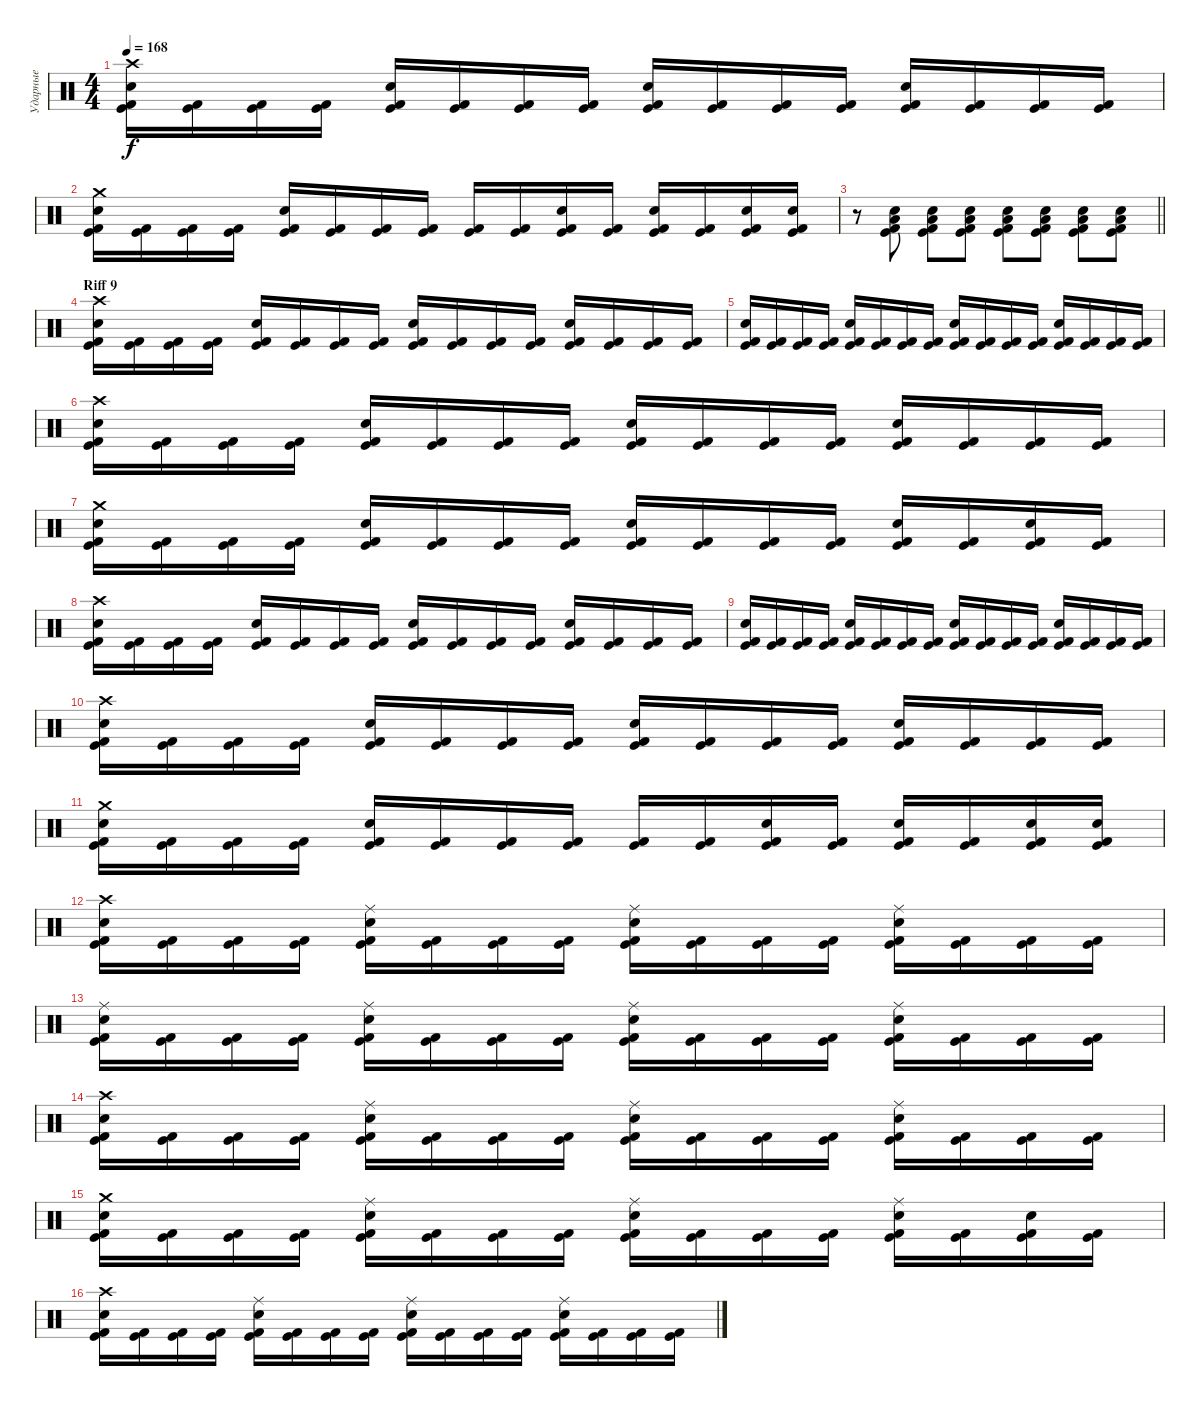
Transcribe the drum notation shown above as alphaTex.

\track ("Ударные" "Ударные") {instrument percussion}
\staff {score}
\articulation defaults
\ts (4 4)
\tempo 168
\clef neutral
\ks c
("Crash high (hit)" "Electric Snare (hit)" "Kick (hit)" "Kick (hit) 2").16{dy f} ("Kick (hit)" "Kick (hit) 2").16 ("Kick (hit)" "Kick (hit) 2").16 ("Kick (hit)" "Kick (hit) 2").16 ("Electric Snare (hit)" "Kick (hit)" "Kick (hit) 2").16 ("Kick (hit)" "Kick (hit) 2").16 ("Kick (hit)" "Kick (hit) 2").16 ("Kick (hit)" "Kick (hit) 2").16 ("Electric Snare (hit)" "Kick (hit)" "Kick (hit) 2").16 ("Kick (hit)" "Kick (hit) 2").16 ("Kick (hit)" "Kick (hit) 2").16 ("Kick (hit)" "Kick (hit) 2").16 ("Electric Snare (hit)" "Kick (hit)" "Kick (hit) 2").16 ("Kick (hit)" "Kick (hit) 2").16 ("Kick (hit)" "Kick (hit) 2").16 ("Kick (hit)" "Kick (hit) 2").16 |
("Crash medium (hit)" "Electric Snare (hit)" "Kick (hit)" "Kick (hit) 2").16 ("Kick (hit)" "Kick (hit) 2").16 ("Kick (hit)" "Kick (hit) 2").16 ("Kick (hit)" "Kick (hit) 2").16 ("Electric Snare (hit)" "Kick (hit)" "Kick (hit) 2").16 ("Kick (hit)" "Kick (hit) 2").16 ("Kick (hit)" "Kick (hit) 2").16 ("Kick (hit)" "Kick (hit) 2").16 ("Kick (hit)" "Kick (hit) 2").16 ("Kick (hit)" "Kick (hit) 2").16 ("Electric Snare (hit)" "Kick (hit)" "Kick (hit) 2").16 ("Kick (hit)" "Kick (hit) 2").16 ("Electric Snare (hit)" "Kick (hit)" "Kick (hit) 2").16 ("Kick (hit)" "Kick (hit) 2").16 ("Electric Snare (hit)" "Kick (hit)" "Kick (hit) 2").16 ("Electric Snare (hit)" "Kick (hit)" "Kick (hit) 2").16 |
\barLineRight lightlight
r.8 ("Low Tom (hit)" "Electric Snare (hit)" "Kick (hit)" "Kick (hit) 2").8 ("Low Tom (hit)" "Electric Snare (hit)" "Kick (hit)" "Kick (hit) 2").8 ("Low Tom (hit)" "Electric Snare (hit)" "Kick (hit)" "Kick (hit) 2").8 ("Low Tom (hit)" "Electric Snare (hit)" "Kick (hit)" "Kick (hit) 2").8 ("Low Tom (hit)" "Electric Snare (hit)" "Kick (hit)" "Kick (hit) 2").8 ("Low Tom (hit)" "Electric Snare (hit)" "Kick (hit)" "Kick (hit) 2").8 ("Low Tom (hit)" "Electric Snare (hit)" "Kick (hit)" "Kick (hit) 2").8 |
\section ("" "Riff 9")
("Crash high (hit)" "Electric Snare (hit)" "Kick (hit)" "Kick (hit) 2").16 ("Kick (hit)" "Kick (hit) 2").16 ("Kick (hit)" "Kick (hit) 2").16 ("Kick (hit)" "Kick (hit) 2").16 ("Electric Snare (hit)" "Kick (hit)" "Kick (hit) 2").16 ("Kick (hit)" "Kick (hit) 2").16 ("Kick (hit)" "Kick (hit) 2").16 ("Kick (hit)" "Kick (hit) 2").16 ("Electric Snare (hit)" "Kick (hit)" "Kick (hit) 2").16 ("Kick (hit)" "Kick (hit) 2").16 ("Kick (hit)" "Kick (hit) 2").16 ("Kick (hit)" "Kick (hit) 2").16 ("Electric Snare (hit)" "Kick (hit)" "Kick (hit) 2").16 ("Kick (hit)" "Kick (hit) 2").16 ("Kick (hit)" "Kick (hit) 2").16 ("Kick (hit)" "Kick (hit) 2").16 |
("Electric Snare (hit)" "Kick (hit)" "Kick (hit) 2").16 ("Kick (hit)" "Kick (hit) 2").16 ("Kick (hit)" "Kick (hit) 2").16 ("Kick (hit)" "Kick (hit) 2").16 ("Electric Snare (hit)" "Kick (hit)" "Kick (hit) 2").16 ("Kick (hit)" "Kick (hit) 2").16 ("Kick (hit)" "Kick (hit) 2").16 ("Kick (hit)" "Kick (hit) 2").16 ("Electric Snare (hit)" "Kick (hit)" "Kick (hit) 2").16 ("Kick (hit)" "Kick (hit) 2").16 ("Kick (hit)" "Kick (hit) 2").16 ("Kick (hit)" "Kick (hit) 2").16 ("Electric Snare (hit)" "Kick (hit)" "Kick (hit) 2").16 ("Kick (hit)" "Kick (hit) 2").16 ("Kick (hit)" "Kick (hit) 2").16 ("Kick (hit)" "Kick (hit) 2").16 |
("Crash high (hit)" "Electric Snare (hit)" "Kick (hit)" "Kick (hit) 2").16 ("Kick (hit)" "Kick (hit) 2").16 ("Kick (hit)" "Kick (hit) 2").16 ("Kick (hit)" "Kick (hit) 2").16 ("Electric Snare (hit)" "Kick (hit)" "Kick (hit) 2").16 ("Kick (hit)" "Kick (hit) 2").16 ("Kick (hit)" "Kick (hit) 2").16 ("Kick (hit)" "Kick (hit) 2").16 ("Electric Snare (hit)" "Kick (hit)" "Kick (hit) 2").16 ("Kick (hit)" "Kick (hit) 2").16 ("Kick (hit)" "Kick (hit) 2").16 ("Kick (hit)" "Kick (hit) 2").16 ("Electric Snare (hit)" "Kick (hit)" "Kick (hit) 2").16 ("Kick (hit)" "Kick (hit) 2").16 ("Kick (hit)" "Kick (hit) 2").16 ("Kick (hit)" "Kick (hit) 2").16 |
("Crash medium (hit)" "Electric Snare (hit)" "Kick (hit)" "Kick (hit) 2").16 ("Kick (hit)" "Kick (hit) 2").16 ("Kick (hit)" "Kick (hit) 2").16 ("Kick (hit)" "Kick (hit) 2").16 ("Electric Snare (hit)" "Kick (hit)" "Kick (hit) 2").16 ("Kick (hit)" "Kick (hit) 2").16 ("Kick (hit)" "Kick (hit) 2").16 ("Kick (hit)" "Kick (hit) 2").16 ("Electric Snare (hit)" "Kick (hit)" "Kick (hit) 2").16 ("Kick (hit)" "Kick (hit) 2").16 ("Kick (hit)" "Kick (hit) 2").16 ("Kick (hit)" "Kick (hit) 2").16 ("Electric Snare (hit)" "Kick (hit)" "Kick (hit) 2").16 ("Kick (hit)" "Kick (hit) 2").16 ("Electric Snare (hit)" "Kick (hit)" "Kick (hit) 2").16 ("Kick (hit)" "Kick (hit) 2").16 |
("Crash high (hit)" "Electric Snare (hit)" "Kick (hit)" "Kick (hit) 2").16 ("Kick (hit)" "Kick (hit) 2").16 ("Kick (hit)" "Kick (hit) 2").16 ("Kick (hit)" "Kick (hit) 2").16 ("Electric Snare (hit)" "Kick (hit)" "Kick (hit) 2").16 ("Kick (hit)" "Kick (hit) 2").16 ("Kick (hit)" "Kick (hit) 2").16 ("Kick (hit)" "Kick (hit) 2").16 ("Electric Snare (hit)" "Kick (hit)" "Kick (hit) 2").16 ("Kick (hit)" "Kick (hit) 2").16 ("Kick (hit)" "Kick (hit) 2").16 ("Kick (hit)" "Kick (hit) 2").16 ("Electric Snare (hit)" "Kick (hit)" "Kick (hit) 2").16 ("Kick (hit)" "Kick (hit) 2").16 ("Kick (hit)" "Kick (hit) 2").16 ("Kick (hit)" "Kick (hit) 2").16 |
("Electric Snare (hit)" "Kick (hit)" "Kick (hit) 2").16 ("Kick (hit)" "Kick (hit) 2").16 ("Kick (hit)" "Kick (hit) 2").16 ("Kick (hit)" "Kick (hit) 2").16 ("Electric Snare (hit)" "Kick (hit)" "Kick (hit) 2").16 ("Kick (hit)" "Kick (hit) 2").16 ("Kick (hit)" "Kick (hit) 2").16 ("Kick (hit)" "Kick (hit) 2").16 ("Electric Snare (hit)" "Kick (hit)" "Kick (hit) 2").16 ("Kick (hit)" "Kick (hit) 2").16 ("Kick (hit)" "Kick (hit) 2").16 ("Kick (hit)" "Kick (hit) 2").16 ("Electric Snare (hit)" "Kick (hit)" "Kick (hit) 2").16 ("Kick (hit)" "Kick (hit) 2").16 ("Kick (hit)" "Kick (hit) 2").16 ("Kick (hit)" "Kick (hit) 2").16 |
("Crash high (hit)" "Electric Snare (hit)" "Kick (hit)" "Kick (hit) 2").16 ("Kick (hit)" "Kick (hit) 2").16 ("Kick (hit)" "Kick (hit) 2").16 ("Kick (hit)" "Kick (hit) 2").16 ("Electric Snare (hit)" "Kick (hit)" "Kick (hit) 2").16 ("Kick (hit)" "Kick (hit) 2").16 ("Kick (hit)" "Kick (hit) 2").16 ("Kick (hit)" "Kick (hit) 2").16 ("Electric Snare (hit)" "Kick (hit)" "Kick (hit) 2").16 ("Kick (hit)" "Kick (hit) 2").16 ("Kick (hit)" "Kick (hit) 2").16 ("Kick (hit)" "Kick (hit) 2").16 ("Electric Snare (hit)" "Kick (hit)" "Kick (hit) 2").16 ("Kick (hit)" "Kick (hit) 2").16 ("Kick (hit)" "Kick (hit) 2").16 ("Kick (hit)" "Kick (hit) 2").16 |
("Crash medium (hit)" "Electric Snare (hit)" "Kick (hit)" "Kick (hit) 2").16 ("Kick (hit)" "Kick (hit) 2").16 ("Kick (hit)" "Kick (hit) 2").16 ("Kick (hit)" "Kick (hit) 2").16 ("Electric Snare (hit)" "Kick (hit)" "Kick (hit) 2").16 ("Kick (hit)" "Kick (hit) 2").16 ("Kick (hit)" "Kick (hit) 2").16 ("Kick (hit)" "Kick (hit) 2").16 ("Kick (hit)" "Kick (hit) 2").16 ("Kick (hit)" "Kick (hit) 2").16 ("Electric Snare (hit)" "Kick (hit)" "Kick (hit) 2").16 ("Kick (hit)" "Kick (hit) 2").16 ("Electric Snare (hit)" "Kick (hit)" "Kick (hit) 2").16 ("Kick (hit)" "Kick (hit) 2").16 ("Electric Snare (hit)" "Kick (hit)" "Kick (hit) 2").16 ("Electric Snare (hit)" "Kick (hit)" "Kick (hit) 2").16 |
("Crash high (hit)" "Electric Snare (hit)" "Kick (hit)" "Kick (hit) 2").16 ("Kick (hit)" "Kick (hit) 2").16 ("Kick (hit)" "Kick (hit) 2").16 ("Kick (hit)" "Kick (hit) 2").16 ("Ride (middle)" "Electric Snare (hit)" "Kick (hit)" "Kick (hit) 2").16 ("Kick (hit)" "Kick (hit) 2").16 ("Kick (hit)" "Kick (hit) 2").16 ("Kick (hit)" "Kick (hit) 2").16 ("Ride (middle)" "Electric Snare (hit)" "Kick (hit)" "Kick (hit) 2").16 ("Kick (hit)" "Kick (hit) 2").16 ("Kick (hit)" "Kick (hit) 2").16 ("Kick (hit)" "Kick (hit) 2").16 ("Ride (middle)" "Electric Snare (hit)" "Kick (hit)" "Kick (hit) 2").16 ("Kick (hit)" "Kick (hit) 2").16 ("Kick (hit)" "Kick (hit) 2").16 ("Kick (hit)" "Kick (hit) 2").16 |
("Ride (middle)" "Electric Snare (hit)" "Kick (hit)" "Kick (hit) 2").16 ("Kick (hit)" "Kick (hit) 2").16 ("Kick (hit)" "Kick (hit) 2").16 ("Kick (hit)" "Kick (hit) 2").16 ("Ride (middle)" "Electric Snare (hit)" "Kick (hit)" "Kick (hit) 2").16 ("Kick (hit)" "Kick (hit) 2").16 ("Kick (hit)" "Kick (hit) 2").16 ("Kick (hit)" "Kick (hit) 2").16 ("Ride (middle)" "Electric Snare (hit)" "Kick (hit)" "Kick (hit) 2").16 ("Kick (hit)" "Kick (hit) 2").16 ("Kick (hit)" "Kick (hit) 2").16 ("Kick (hit)" "Kick (hit) 2").16 ("Ride (middle)" "Electric Snare (hit)" "Kick (hit)" "Kick (hit) 2").16 ("Kick (hit)" "Kick (hit) 2").16 ("Kick (hit)" "Kick (hit) 2").16 ("Kick (hit)" "Kick (hit) 2").16 |
("Crash high (hit)" "Electric Snare (hit)" "Kick (hit)" "Kick (hit) 2").16 ("Kick (hit)" "Kick (hit) 2").16 ("Kick (hit)" "Kick (hit) 2").16 ("Kick (hit)" "Kick (hit) 2").16 ("Ride (middle)" "Electric Snare (hit)" "Kick (hit)" "Kick (hit) 2").16 ("Kick (hit)" "Kick (hit) 2").16 ("Kick (hit)" "Kick (hit) 2").16 ("Kick (hit)" "Kick (hit) 2").16 ("Ride (middle)" "Electric Snare (hit)" "Kick (hit)" "Kick (hit) 2").16 ("Kick (hit)" "Kick (hit) 2").16 ("Kick (hit)" "Kick (hit) 2").16 ("Kick (hit)" "Kick (hit) 2").16 ("Ride (middle)" "Electric Snare (hit)" "Kick (hit)" "Kick (hit) 2").16 ("Kick (hit)" "Kick (hit) 2").16 ("Kick (hit)" "Kick (hit) 2").16 ("Kick (hit)" "Kick (hit) 2").16 |
("Crash medium (hit)" "Electric Snare (hit)" "Kick (hit)" "Kick (hit) 2").16 ("Kick (hit)" "Kick (hit) 2").16 ("Kick (hit)" "Kick (hit) 2").16 ("Kick (hit)" "Kick (hit) 2").16 ("Ride (middle)" "Electric Snare (hit)" "Kick (hit)" "Kick (hit) 2").16 ("Kick (hit)" "Kick (hit) 2").16 ("Kick (hit)" "Kick (hit) 2").16 ("Kick (hit)" "Kick (hit) 2").16 ("Ride (middle)" "Electric Snare (hit)" "Kick (hit)" "Kick (hit) 2").16 ("Kick (hit)" "Kick (hit) 2").16 ("Kick (hit)" "Kick (hit) 2").16 ("Kick (hit)" "Kick (hit) 2").16 ("Ride (middle)" "Electric Snare (hit)" "Kick (hit)" "Kick (hit) 2").16 ("Kick (hit)" "Kick (hit) 2").16 ("Electric Snare (hit)" "Kick (hit)" "Kick (hit) 2").16 ("Kick (hit)" "Kick (hit) 2").16 |
("Crash high (hit)" "Electric Snare (hit)" "Kick (hit)" "Kick (hit) 2").16 ("Kick (hit)" "Kick (hit) 2").16 ("Kick (hit)" "Kick (hit) 2").16 ("Kick (hit)" "Kick (hit) 2").16 ("Ride (middle)" "Electric Snare (hit)" "Kick (hit)" "Kick (hit) 2").16 ("Kick (hit)" "Kick (hit) 2").16 ("Kick (hit)" "Kick (hit) 2").16 ("Kick (hit)" "Kick (hit) 2").16 ("Ride (middle)" "Electric Snare (hit)" "Kick (hit)" "Kick (hit) 2").16 ("Kick (hit)" "Kick (hit) 2").16 ("Kick (hit)" "Kick (hit) 2").16 ("Kick (hit)" "Kick (hit) 2").16 ("Ride (middle)" "Electric Snare (hit)" "Kick (hit)" "Kick (hit) 2").16 ("Kick (hit)" "Kick (hit) 2").16 ("Kick (hit)" "Kick (hit) 2").16 ("Kick (hit)" "Kick (hit) 2").16
